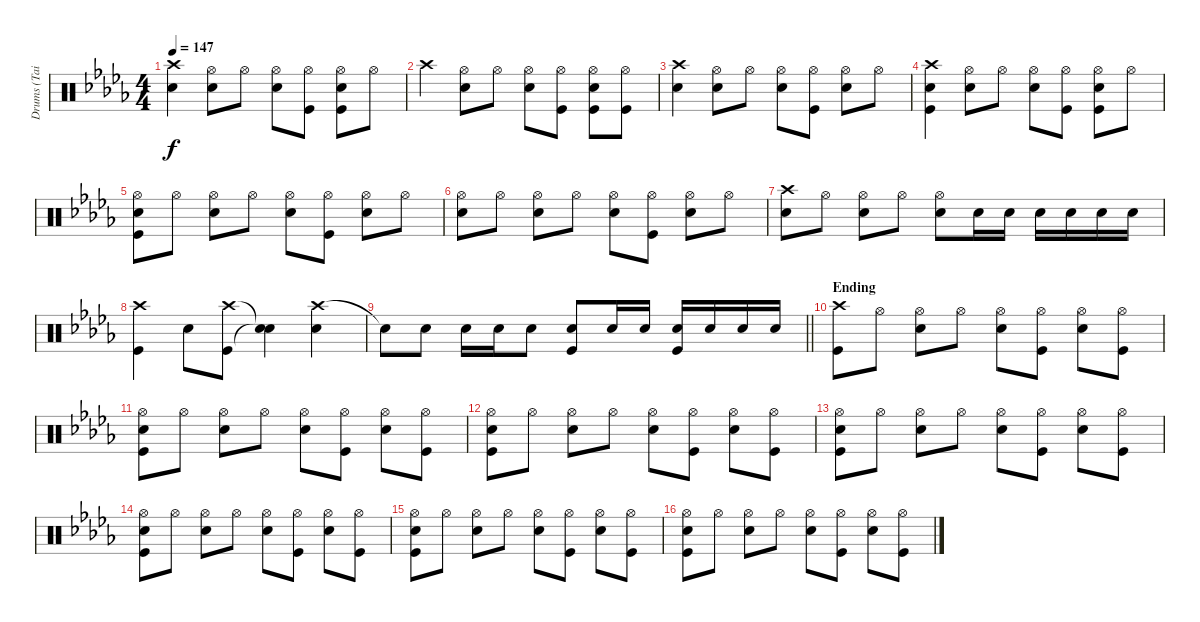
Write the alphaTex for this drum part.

\track ("Drums (Tainaka Ritsu)" "Drums (Tai") {instrument percussion}
\staff {score}
\articulation defaults
\ts (4 4)
\tempo 147
\clef neutral
\ks db
("Crash high (hit)" "Snare (hit) 2").4{dy f} ("Hi-Hat (open)" "Snare (hit) 2").8 "Hi-Hat (open)".8 ("Hi-Hat (open)" "Snare (hit) 2").8 ("Hi-Hat (open)" "Kick (hit)").8 ("Hi-Hat (open)" "Snare (hit) 2" "Kick (hit)").8 "Hi-Hat (open)".8 |
"Crash high (hit)".4 ("Hi-Hat (open)" "Snare (hit) 2").8 "Hi-Hat (open)".8 ("Hi-Hat (open)" "Snare (hit) 2").8 ("Hi-Hat (open)" "Kick (hit)").8 ("Hi-Hat (open)" "Snare (hit) 2" "Kick (hit)").8 ("Hi-Hat (open)" "Kick (hit)").8 |
("Crash high (hit)" "Snare (hit) 2").4 ("Hi-Hat (open)" "Snare (hit) 2").8 "Hi-Hat (open)".8 ("Hi-Hat (open)" "Snare (hit) 2").8 ("Hi-Hat (open)" "Kick (hit)").8 ("Hi-Hat (open)" "Snare (hit) 2").8 "Hi-Hat (open)".8 |
("Crash high (hit)" "Snare (hit) 2" "Kick (hit)").4 ("Hi-Hat (open)" "Snare (hit) 2").8 "Hi-Hat (open)".8 ("Hi-Hat (open)" "Snare (hit) 2").8 ("Hi-Hat (open)" "Kick (hit)").8 ("Hi-Hat (open)" "Snare (hit) 2" "Kick (hit)").8 "Hi-Hat (open)".8 |
("Hi-Hat (open)" "Snare (hit) 2" "Kick (hit)").8 "Hi-Hat (open)".8 ("Hi-Hat (open)" "Snare (hit) 2").8 "Hi-Hat (open)".8 ("Hi-Hat (open)" "Snare (hit) 2").8 ("Hi-Hat (open)" "Kick (hit)").8 ("Hi-Hat (open)" "Snare (hit) 2").8 "Hi-Hat (open)".8 |
("Hi-Hat (open)" "Snare (hit) 2").8 "Hi-Hat (open)".8 ("Hi-Hat (open)" "Snare (hit) 2").8 "Hi-Hat (open)".8 ("Hi-Hat (open)" "Snare (hit) 2").8 ("Hi-Hat (open)" "Kick (hit)").8 ("Hi-Hat (open)" "Snare (hit) 2").8 "Hi-Hat (open)".8 |
("Crash high (hit)" "Snare (hit) 2").8 "Hi-Hat (open)".8 ("Hi-Hat (open)" "Snare (hit) 2").8 "Hi-Hat (open)".8 ("Hi-Hat (open)" "Snare (hit) 2").8 "Snare (hit) 2".16 "Snare (hit) 2".16 "Snare (hit) 2".16 "Snare (hit) 2".16 "Snare (hit) 2".16 "Snare (hit) 2".16 |
("Crash high (hit)" "Kick (hit)").4 "Snare (hit) 2".8 ("Crash high (hit)" "Kick (hit)").8 ("Snare (hit)"{t} "Snare (hit)"{t}).4 ("Crash high (hit)" "Snare (hit) 2").4 |
\barLineRight lightlight "Snare (hit)"{t}.8 "Snare (hit) 2".8 "Snare (hit) 2".16 "Snare (hit) 2".16 "Snare (hit) 2".8
("Snare (hit) 2" "Kick (hit)").8 "Snare (hit) 2".16 "Snare (hit) 2".16 ("Snare (hit) 2" "Kick (hit)").16 "Snare (hit) 2".16 "Snare (hit) 2".16 "Snare (hit) 2".16 |
\section ("" "Ending")
("Crash high (hit)" "Kick (hit)").8 "Hi-Hat (open)".8 ("Hi-Hat (open)" "Snare (hit) 2").8 "Hi-Hat (open)".8 ("Hi-Hat (open)" "Snare (hit) 2").8 ("Hi-Hat (open)" "Kick (hit)").8 ("Hi-Hat (open)" "Snare (hit) 2").8 ("Hi-Hat (open)" "Kick (hit)").8 |
("Hi-Hat (open)" "Snare (hit) 2" "Kick (hit)").8 "Hi-Hat (open)".8 ("Hi-Hat (open)" "Snare (hit) 2").8 "Hi-Hat (open)".8 ("Hi-Hat (open)" "Snare (hit) 2").8 ("Hi-Hat (open)" "Kick (hit)").8 ("Hi-Hat (open)" "Snare (hit) 2").8 ("Hi-Hat (open)" "Kick (hit)").8 |
("Hi-Hat (open)" "Snare (hit) 2" "Kick (hit)").8 "Hi-Hat (open)".8 ("Hi-Hat (open)" "Snare (hit) 2").8 "Hi-Hat (open)".8 ("Hi-Hat (open)" "Snare (hit) 2").8 ("Hi-Hat (open)" "Kick (hit)").8 ("Hi-Hat (open)" "Snare (hit) 2").8 ("Hi-Hat (open)" "Kick (hit)").8 |
("Hi-Hat (open)" "Snare (hit) 2" "Kick (hit)").8 "Hi-Hat (open)".8 ("Hi-Hat (open)" "Snare (hit) 2").8 "Hi-Hat (open)".8 ("Hi-Hat (open)" "Snare (hit) 2").8 ("Hi-Hat (open)" "Kick (hit)").8 ("Hi-Hat (open)" "Snare (hit) 2").8 ("Hi-Hat (open)" "Kick (hit)").8 |
("Hi-Hat (open)" "Snare (hit) 2" "Kick (hit)").8 "Hi-Hat (open)".8 ("Hi-Hat (open)" "Snare (hit) 2").8 "Hi-Hat (open)".8 ("Hi-Hat (open)" "Snare (hit) 2").8 ("Hi-Hat (open)" "Kick (hit)").8 ("Hi-Hat (open)" "Snare (hit) 2").8 ("Hi-Hat (open)" "Kick (hit)").8 |
("Hi-Hat (open)" "Snare (hit) 2" "Kick (hit)").8 "Hi-Hat (open)".8 ("Hi-Hat (open)" "Snare (hit) 2").8 "Hi-Hat (open)".8 ("Hi-Hat (open)" "Snare (hit) 2").8 ("Hi-Hat (open)" "Kick (hit)").8 ("Hi-Hat (open)" "Snare (hit) 2").8 ("Hi-Hat (open)" "Kick (hit)").8 |
("Hi-Hat (open)" "Snare (hit) 2" "Kick (hit)").8 "Hi-Hat (open)".8 ("Hi-Hat (open)" "Snare (hit) 2").8 "Hi-Hat (open)".8 ("Hi-Hat (open)" "Snare (hit) 2").8 ("Hi-Hat (open)" "Kick (hit)").8 ("Hi-Hat (open)" "Snare (hit) 2").8 ("Hi-Hat (open)" "Kick (hit)").8
